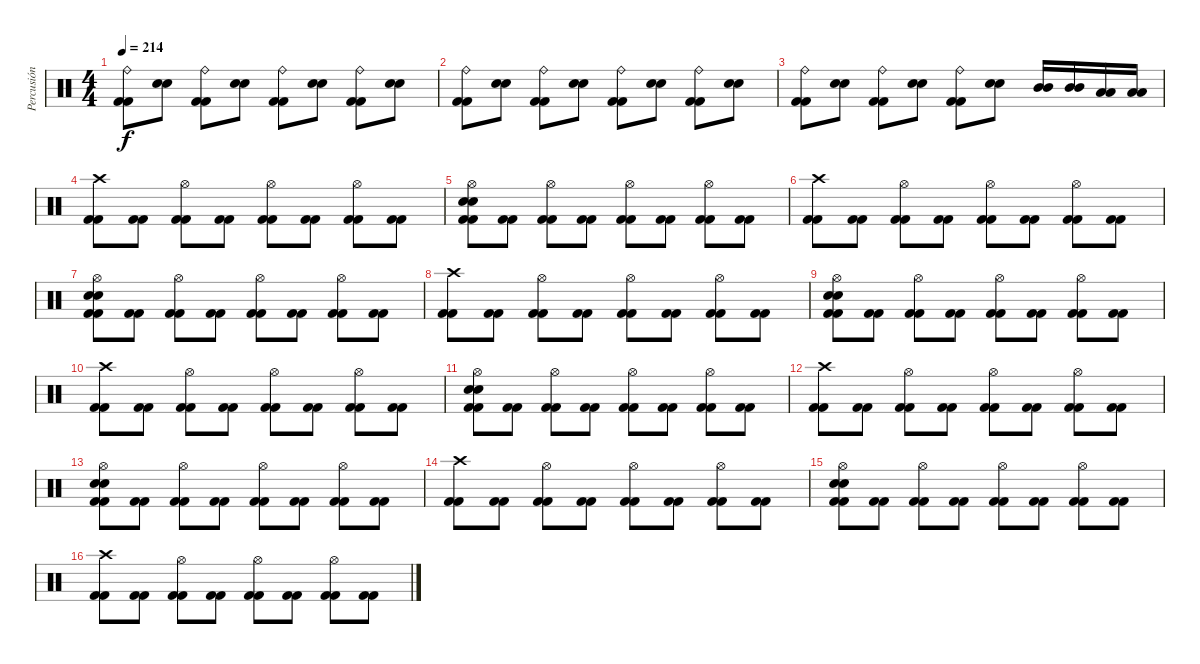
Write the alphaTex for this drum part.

\track ("Percusión" "Percusión") {instrument percussion}
\staff {score}
\articulation defaults
\ts (4 4)
\tempo 214
\clef neutral
\ks c
("Kick (hit) 2" "Kick (hit) 2" "Ride (bell)").8{dy f} ("Electric Snare (hit)" "Electric Snare (hit)").8 ("Kick (hit) 2" "Kick (hit) 2" "Ride (bell)").8 ("Electric Snare (hit)" "Electric Snare (hit)").8 ("Kick (hit) 2" "Kick (hit) 2" "Ride (bell)").8 ("Electric Snare (hit)" "Electric Snare (hit)").8 ("Kick (hit) 2" "Kick (hit) 2" "Ride (bell)").8 ("Electric Snare (hit)" "Electric Snare (hit)").8 |
("Kick (hit) 2" "Kick (hit) 2" "Ride (bell)").8 ("Electric Snare (hit)" "Electric Snare (hit)").8 ("Kick (hit) 2" "Kick (hit) 2" "Ride (bell)").8 ("Electric Snare (hit)" "Electric Snare (hit)").8 ("Kick (hit) 2" "Kick (hit) 2" "Ride (bell)").8 ("Electric Snare (hit)" "Electric Snare (hit)").8 ("Kick (hit) 2" "Kick (hit) 2" "Ride (bell)").8 ("Electric Snare (hit)" "Electric Snare (hit)").8 |
("Kick (hit) 2" "Kick (hit) 2" "Ride (bell)").8 ("Electric Snare (hit)" "Electric Snare (hit)").8 ("Kick (hit) 2" "Kick (hit) 2" "Ride (bell)").8 ("Electric Snare (hit)" "Electric Snare (hit)").8 ("Kick (hit) 2" "Kick (hit) 2" "Ride (bell)").8 ("Electric Snare (hit)" "Electric Snare (hit)").8 ("Mid Tom (hit)" "Mid Tom (hit)").16 ("Mid Tom (hit)" "Mid Tom (hit)").16 ("Low Floor Tom (hit)" "Low Floor Tom (hit)").16 ("Low Floor Tom (hit)" "Low Floor Tom (hit)").16 |
("Kick (hit) 2" "Kick (hit) 2" "Crash high (hit)").8 ("Kick (hit) 2" "Kick (hit) 2").8 ("Kick (hit) 2" "Kick (hit) 2" "Hi-Hat (open)").8 ("Kick (hit) 2" "Kick (hit) 2").8 ("Kick (hit) 2" "Kick (hit) 2" "Hi-Hat (open)").8 ("Kick (hit) 2" "Kick (hit) 2").8 ("Kick (hit) 2" "Kick (hit) 2" "Hi-Hat (open)").8 ("Kick (hit) 2" "Kick (hit) 2").8 |
("Kick (hit) 2" "Kick (hit) 2" "Electric Snare (hit)" "Electric Snare (hit)" "Hi-Hat (open)").8 ("Kick (hit) 2" "Kick (hit) 2").8 ("Kick (hit) 2" "Kick (hit) 2" "Hi-Hat (open)").8 ("Kick (hit) 2" "Kick (hit) 2").8 ("Kick (hit) 2" "Kick (hit) 2" "Hi-Hat (open)").8 ("Kick (hit) 2" "Kick (hit) 2").8 ("Kick (hit) 2" "Kick (hit) 2" "Hi-Hat (open)").8 ("Kick (hit) 2" "Kick (hit) 2").8 |
("Kick (hit) 2" "Kick (hit) 2" "Crash high (hit)").8 ("Kick (hit) 2" "Kick (hit) 2").8 ("Kick (hit) 2" "Kick (hit) 2" "Hi-Hat (open)").8 ("Kick (hit) 2" "Kick (hit) 2").8 ("Kick (hit) 2" "Kick (hit) 2" "Hi-Hat (open)").8 ("Kick (hit) 2" "Kick (hit) 2").8 ("Kick (hit) 2" "Kick (hit) 2" "Hi-Hat (open)").8 ("Kick (hit) 2" "Kick (hit) 2").8 |
("Kick (hit) 2" "Kick (hit) 2" "Electric Snare (hit)" "Electric Snare (hit)" "Hi-Hat (open)").8 ("Kick (hit) 2" "Kick (hit) 2").8 ("Kick (hit) 2" "Kick (hit) 2" "Hi-Hat (open)").8 ("Kick (hit) 2" "Kick (hit) 2").8 ("Kick (hit) 2" "Kick (hit) 2" "Hi-Hat (open)").8 ("Kick (hit) 2" "Kick (hit) 2").8 ("Kick (hit) 2" "Kick (hit) 2" "Hi-Hat (open)").8 ("Kick (hit) 2" "Kick (hit) 2").8 |
("Kick (hit) 2" "Kick (hit) 2" "Crash high (hit)").8 ("Kick (hit) 2" "Kick (hit) 2").8 ("Kick (hit) 2" "Kick (hit) 2" "Hi-Hat (open)").8 ("Kick (hit) 2" "Kick (hit) 2").8 ("Kick (hit) 2" "Kick (hit) 2" "Hi-Hat (open)").8 ("Kick (hit) 2" "Kick (hit) 2").8 ("Kick (hit) 2" "Kick (hit) 2" "Hi-Hat (open)").8 ("Kick (hit) 2" "Kick (hit) 2").8 |
("Kick (hit) 2" "Kick (hit) 2" "Electric Snare (hit)" "Electric Snare (hit)" "Hi-Hat (open)").8 ("Kick (hit) 2" "Kick (hit) 2").8 ("Kick (hit) 2" "Kick (hit) 2" "Hi-Hat (open)").8 ("Kick (hit) 2" "Kick (hit) 2").8 ("Kick (hit) 2" "Kick (hit) 2" "Hi-Hat (open)").8 ("Kick (hit) 2" "Kick (hit) 2").8 ("Kick (hit) 2" "Kick (hit) 2" "Hi-Hat (open)").8 ("Kick (hit) 2" "Kick (hit) 2").8 |
("Kick (hit) 2" "Kick (hit) 2" "Crash high (hit)").8 ("Kick (hit) 2" "Kick (hit) 2").8 ("Kick (hit) 2" "Kick (hit) 2" "Hi-Hat (open)").8 ("Kick (hit) 2" "Kick (hit) 2").8 ("Kick (hit) 2" "Kick (hit) 2" "Hi-Hat (open)").8 ("Kick (hit) 2" "Kick (hit) 2").8 ("Kick (hit) 2" "Kick (hit) 2" "Hi-Hat (open)").8 ("Kick (hit) 2" "Kick (hit) 2").8 |
("Kick (hit) 2" "Kick (hit) 2" "Electric Snare (hit)" "Electric Snare (hit)" "Hi-Hat (open)").8 ("Kick (hit) 2" "Kick (hit) 2").8 ("Kick (hit) 2" "Kick (hit) 2" "Hi-Hat (open)").8 ("Kick (hit) 2" "Kick (hit) 2").8 ("Kick (hit) 2" "Kick (hit) 2" "Hi-Hat (open)").8 ("Kick (hit) 2" "Kick (hit) 2").8 ("Kick (hit) 2" "Kick (hit) 2" "Hi-Hat (open)").8 ("Kick (hit) 2" "Kick (hit) 2").8 |
("Kick (hit) 2" "Kick (hit) 2" "Crash high (hit)").8 ("Kick (hit) 2" "Kick (hit) 2").8 ("Kick (hit) 2" "Kick (hit) 2" "Hi-Hat (open)").8 ("Kick (hit) 2" "Kick (hit) 2").8 ("Kick (hit) 2" "Kick (hit) 2" "Hi-Hat (open)").8 ("Kick (hit) 2" "Kick (hit) 2").8 ("Kick (hit) 2" "Kick (hit) 2" "Hi-Hat (open)").8 ("Kick (hit) 2" "Kick (hit) 2").8 |
("Kick (hit) 2" "Kick (hit) 2" "Electric Snare (hit)" "Electric Snare (hit)" "Hi-Hat (open)").8 ("Kick (hit) 2" "Kick (hit) 2").8 ("Kick (hit) 2" "Kick (hit) 2" "Hi-Hat (open)").8 ("Kick (hit) 2" "Kick (hit) 2").8 ("Kick (hit) 2" "Kick (hit) 2" "Hi-Hat (open)").8 ("Kick (hit) 2" "Kick (hit) 2").8 ("Kick (hit) 2" "Kick (hit) 2" "Hi-Hat (open)").8 ("Kick (hit) 2" "Kick (hit) 2").8 |
("Kick (hit) 2" "Kick (hit) 2" "Crash high (hit)").8 ("Kick (hit) 2" "Kick (hit) 2").8 ("Kick (hit) 2" "Kick (hit) 2" "Hi-Hat (open)").8 ("Kick (hit) 2" "Kick (hit) 2").8 ("Kick (hit) 2" "Kick (hit) 2" "Hi-Hat (open)").8 ("Kick (hit) 2" "Kick (hit) 2").8 ("Kick (hit) 2" "Kick (hit) 2" "Hi-Hat (open)").8 ("Kick (hit) 2" "Kick (hit) 2").8 |
("Kick (hit) 2" "Kick (hit) 2" "Electric Snare (hit)" "Electric Snare (hit)" "Hi-Hat (open)").8 ("Kick (hit) 2" "Kick (hit) 2").8 ("Kick (hit) 2" "Kick (hit) 2" "Hi-Hat (open)").8 ("Kick (hit) 2" "Kick (hit) 2").8 ("Kick (hit) 2" "Kick (hit) 2" "Hi-Hat (open)").8 ("Kick (hit) 2" "Kick (hit) 2").8 ("Kick (hit) 2" "Kick (hit) 2" "Hi-Hat (open)").8 ("Kick (hit) 2" "Kick (hit) 2").8 |
("Kick (hit) 2" "Kick (hit) 2" "Crash high (hit)").8 ("Kick (hit) 2" "Kick (hit) 2").8 ("Kick (hit) 2" "Kick (hit) 2" "Hi-Hat (open)").8 ("Kick (hit) 2" "Kick (hit) 2").8 ("Kick (hit) 2" "Kick (hit) 2" "Hi-Hat (open)").8 ("Kick (hit) 2" "Kick (hit) 2").8 ("Kick (hit) 2" "Kick (hit) 2" "Hi-Hat (open)").8 ("Kick (hit) 2" "Kick (hit) 2").8
